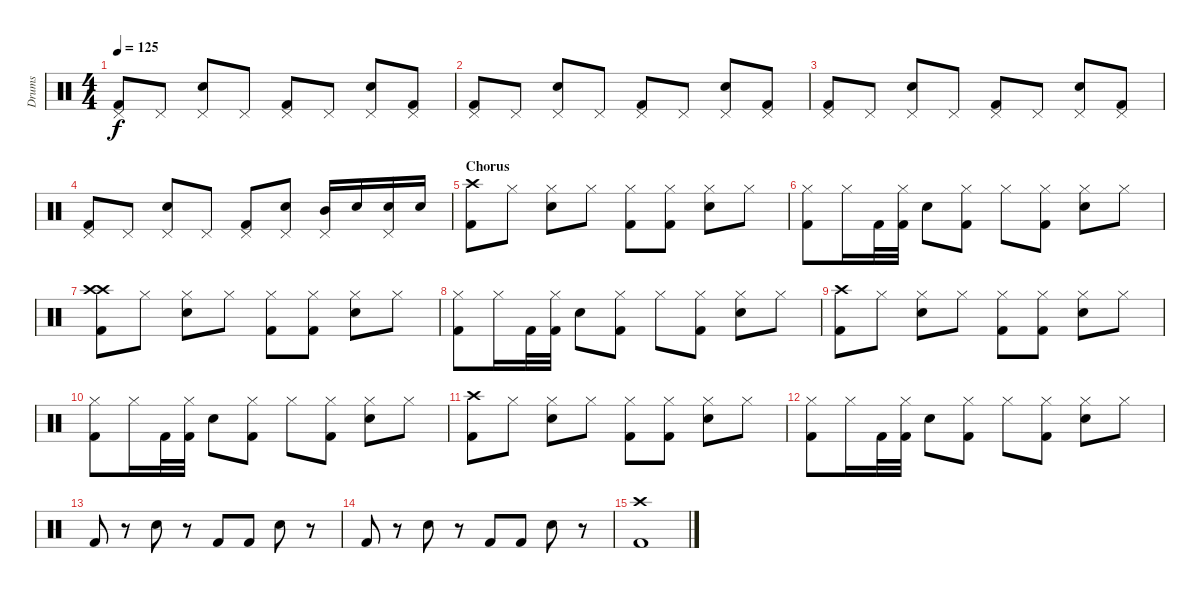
\track ("Drums" "Drums") {instrument percussion}
\staff {score}
\articulation defaults
\ts (4 4)
\tempo 125
\clef neutral
\ks c
("Kick (hit) 2" "Pedal Hi-Hat (hit)").8{dy f} "Pedal Hi-Hat (hit)".8 ("Electric Snare (hit)" "Pedal Hi-Hat (hit)").8 "Pedal Hi-Hat (hit)".8 ("Kick (hit) 2" "Pedal Hi-Hat (hit)").8 "Pedal Hi-Hat (hit)".8 ("Electric Snare (hit)" "Pedal Hi-Hat (hit)").8 ("Kick (hit) 2" "Pedal Hi-Hat (hit)").8 |
("Kick (hit) 2" "Pedal Hi-Hat (hit)").8 "Pedal Hi-Hat (hit)".8 ("Electric Snare (hit)" "Pedal Hi-Hat (hit)").8 "Pedal Hi-Hat (hit)".8 ("Kick (hit) 2" "Pedal Hi-Hat (hit)").8 "Pedal Hi-Hat (hit)".8 ("Electric Snare (hit)" "Pedal Hi-Hat (hit)").8 ("Kick (hit) 2" "Pedal Hi-Hat (hit)").8 |
("Kick (hit) 2" "Pedal Hi-Hat (hit)").8 "Pedal Hi-Hat (hit)".8 ("Electric Snare (hit)" "Pedal Hi-Hat (hit)").8 "Pedal Hi-Hat (hit)".8 ("Kick (hit) 2" "Pedal Hi-Hat (hit)").8 "Pedal Hi-Hat (hit)".8 ("Electric Snare (hit)" "Pedal Hi-Hat (hit)").8 ("Kick (hit) 2" "Pedal Hi-Hat (hit)").8 |
("Kick (hit) 2" "Pedal Hi-Hat (hit)").8 "Pedal Hi-Hat (hit)".8 ("Electric Snare (hit)" "Pedal Hi-Hat (hit)").8 "Pedal Hi-Hat (hit)".8 ("Kick (hit) 2" "Pedal Hi-Hat (hit)").8 ("Electric Snare (hit)" "Pedal Hi-Hat (hit)").8 ("Mid Tom (hit)" "Pedal Hi-Hat (hit)").16 "Electric Snare (hit)".16 ("Electric Snare (hit)" "Pedal Hi-Hat (hit)").16 "Electric Snare (hit)".16 |
\section ("" "Chorus")
("Crash high (hit)" "Kick (hit) 2").8 "Hi-Hat (closed)".8 ("Hi-Hat (closed)" "Electric Snare (hit)").8 "Hi-Hat (closed)".8 ("Hi-Hat (closed)" "Kick (hit) 2").8 ("Hi-Hat (closed)" "Kick (hit) 2").8 ("Hi-Hat (closed)" "Electric Snare (hit)").8 "Hi-Hat (closed)".8 |
("Hi-Hat (closed)" "Kick (hit) 2").8 "Hi-Hat (closed)".16 "Kick (hit) 2".32 ("Hi-Hat (closed)" "Kick (hit) 2").32 "Electric Snare (hit)".8 ("Hi-Hat (closed)" "Kick (hit) 2").8 "Hi-Hat (closed)".8 ("Hi-Hat (closed)" "Kick (hit) 2").8 ("Hi-Hat (closed)" "Electric Snare (hit)").8 "Hi-Hat (closed)".8 |
("Crash high (hit)" "Crash high (hit)" "Kick (hit) 2").8 "Hi-Hat (closed)".8 ("Hi-Hat (closed)" "Electric Snare (hit)").8 "Hi-Hat (closed)".8 ("Hi-Hat (closed)" "Kick (hit) 2").8 ("Hi-Hat (closed)" "Kick (hit) 2").8 ("Hi-Hat (closed)" "Electric Snare (hit)").8 "Hi-Hat (closed)".8 |
("Hi-Hat (closed)" "Kick (hit) 2").8 "Hi-Hat (closed)".16 "Kick (hit) 2".32 ("Hi-Hat (closed)" "Kick (hit) 2").32 "Electric Snare (hit)".8 ("Hi-Hat (closed)" "Kick (hit) 2").8 "Hi-Hat (closed)".8 ("Hi-Hat (closed)" "Kick (hit) 2").8 ("Hi-Hat (closed)" "Electric Snare (hit)").8 "Hi-Hat (closed)".8 |
("Crash high (hit)" "Kick (hit) 2").8 "Hi-Hat (closed)".8 ("Hi-Hat (closed)" "Electric Snare (hit)").8 "Hi-Hat (closed)".8 ("Hi-Hat (closed)" "Kick (hit) 2").8 ("Hi-Hat (closed)" "Kick (hit) 2").8 ("Hi-Hat (closed)" "Electric Snare (hit)").8 "Hi-Hat (closed)".8 |
("Hi-Hat (closed)" "Kick (hit) 2").8 "Hi-Hat (closed)".16 "Kick (hit) 2".32 ("Hi-Hat (closed)" "Kick (hit) 2").32 "Electric Snare (hit)".8 ("Hi-Hat (closed)" "Kick (hit) 2").8 "Hi-Hat (closed)".8 ("Hi-Hat (closed)" "Kick (hit) 2").8 ("Hi-Hat (closed)" "Electric Snare (hit)").8 "Hi-Hat (closed)".8 |
("Crash high (hit)" "Kick (hit) 2").8 "Hi-Hat (closed)".8 ("Hi-Hat (closed)" "Electric Snare (hit)").8 "Hi-Hat (closed)".8 ("Hi-Hat (closed)" "Kick (hit) 2").8 ("Hi-Hat (closed)" "Kick (hit) 2").8 ("Hi-Hat (closed)" "Electric Snare (hit)").8 "Hi-Hat (closed)".8 |
("Hi-Hat (closed)" "Kick (hit) 2").8 "Hi-Hat (closed)".16 "Kick (hit) 2".32 ("Hi-Hat (closed)" "Kick (hit) 2").32 "Electric Snare (hit)".8 ("Hi-Hat (closed)" "Kick (hit) 2").8 "Hi-Hat (closed)".8 ("Hi-Hat (closed)" "Kick (hit) 2").8 ("Hi-Hat (closed)" "Electric Snare (hit)").8 "Hi-Hat (closed)".8 |
"Kick (hit) 2".8 r.8 "Electric Snare (hit)".8 r.8 "Kick (hit) 2".8 "Kick (hit) 2".8 "Electric Snare (hit)".8 r.8 |
"Kick (hit) 2".8 r.8 "Electric Snare (hit)".8 r.8 "Kick (hit) 2".8 "Kick (hit) 2".8 "Electric Snare (hit)".8 r.8 |
("Crash high (hit)" "Kick (hit) 2").1
